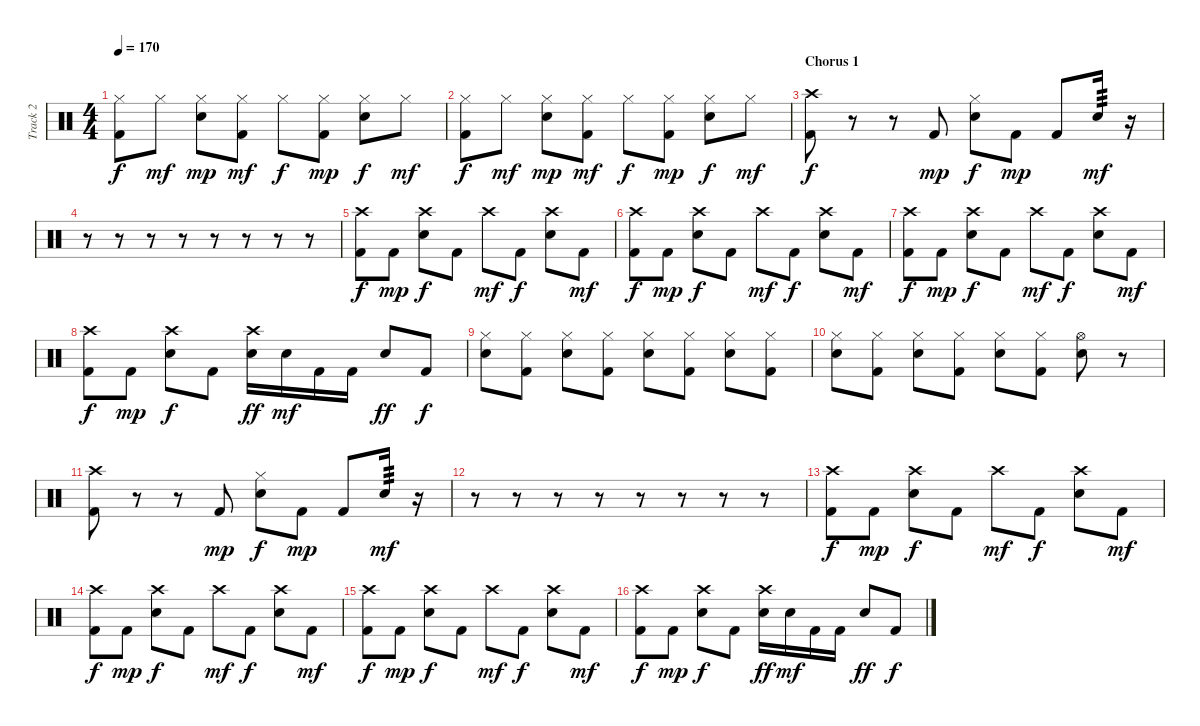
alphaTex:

\track ("Track 2" "Track 2") {instrument percussion}
\staff {score}
\articulation defaults
\ts (4 4)
\tempo 170
\clef neutral
\ks c
("Hi-Hat (closed)" "Kick (hit) 2").8{dy f} "Hi-Hat (closed)".8{dy mf} ("Hi-Hat (closed)" "Electric Snare (hit)").8{dy mp} ("Hi-Hat (closed)" "Kick (hit) 2").8{dy mf} "Hi-Hat (closed)".8{dy f} ("Hi-Hat (closed)" "Kick (hit) 2").8{dy mp} ("Hi-Hat (closed)" "Electric Snare (hit)").8{dy f} "Hi-Hat (closed)".8{dy mf} |
("Hi-Hat (closed)" "Kick (hit) 2").8{dy f} "Hi-Hat (closed)".8{dy mf} ("Hi-Hat (closed)" "Electric Snare (hit)").8{dy mp} ("Hi-Hat (closed)" "Kick (hit) 2").8{dy mf} "Hi-Hat (closed)".8{dy f} ("Hi-Hat (closed)" "Kick (hit) 2").8{dy mp} ("Hi-Hat (closed)" "Electric Snare (hit)").8{dy f} "Hi-Hat (closed)".8{dy mf} |
\section ("" "Chorus 1")
("Crash high (hit)" "Kick (hit) 2").8{dy f} r.8 r.8 "Kick (hit) 2".8{dy mp} ("Hi-Hat (closed)" "Electric Snare (hit)").8{dy f} "Kick (hit) 2".8{dy mp} "Kick (hit) 2".8 "Electric Snare (hit)".16{tp 3 dy mf} r.16 |
r.8 r.8 r.8 r.8 r.8 r.8 r.8 r.8 |
("Crash high (hit)" "Kick (hit) 2").8{dy f} "Kick (hit) 2".8{dy mp} ("Crash high (hit)" "Electric Snare (hit)").8{dy f} "Kick (hit) 2".8 "Crash high (hit)".8{dy mf} "Kick (hit) 2".8{dy f} ("Crash high (hit)" "Electric Snare (hit)").8 "Kick (hit) 2".8{dy mf} |
("Crash high (hit)" "Kick (hit) 2").8{dy f} "Kick (hit) 2".8{dy mp} ("Crash high (hit)" "Electric Snare (hit)").8{dy f} "Kick (hit) 2".8 "Crash high (hit)".8{dy mf} "Kick (hit) 2".8{dy f} ("Crash high (hit)" "Electric Snare (hit)").8 "Kick (hit) 2".8{dy mf} |
("Crash high (hit)" "Kick (hit) 2").8{dy f} "Kick (hit) 2".8{dy mp} ("Crash high (hit)" "Electric Snare (hit)").8{dy f} "Kick (hit) 2".8 "Crash high (hit)".8{dy mf} "Kick (hit) 2".8{dy f} ("Crash high (hit)" "Electric Snare (hit)").8 "Kick (hit) 2".8{dy mf} |
("Crash high (hit)" "Kick (hit) 2").8{dy f} "Kick (hit) 2".8{dy mp} ("Crash high (hit)" "Electric Snare (hit)").8{dy f} "Kick (hit) 2".8 ("Crash high (hit)" "Electric Snare (hit)").16{dy ff} "Electric Snare (hit)".16{dy mf} "Kick (hit) 2".16 "Kick (hit) 2".16 "Electric Snare (hit)".8{dy ff} "Kick (hit) 2".8{dy f} |
("Hi-Hat (closed)" "Electric Snare (hit)").8 ("Hi-Hat (closed)" "Kick (hit) 2").8 ("Hi-Hat (closed)" "Electric Snare (hit)").8 ("Hi-Hat (closed)" "Kick (hit) 2").8 ("Hi-Hat (closed)" "Electric Snare (hit)").8 ("Hi-Hat (closed)" "Kick (hit) 2").8 ("Hi-Hat (closed)" "Electric Snare (hit)").8 ("Hi-Hat (closed)" "Kick (hit) 2").8 |
("Hi-Hat (closed)" "Electric Snare (hit)").8 ("Hi-Hat (closed)" "Kick (hit) 2").8 ("Hi-Hat (closed)" "Electric Snare (hit)").8 ("Hi-Hat (closed)" "Kick (hit) 2").8 ("Hi-Hat (closed)" "Electric Snare (hit)").8 ("Hi-Hat (closed)" "Kick (hit) 2").8 ("Hi-Hat (open)" "Electric Snare (hit)").8 r.8 |
("Crash high (hit)" "Kick (hit) 2").8 r.8 r.8 "Kick (hit) 2".8{dy mp} ("Hi-Hat (closed)" "Electric Snare (hit)").8{dy f} "Kick (hit) 2".8{dy mp} "Kick (hit) 2".8 "Electric Snare (hit)".16{tp 3 dy mf} r.16 |
r.8 r.8 r.8 r.8 r.8 r.8 r.8 r.8 |
("Crash high (hit)" "Kick (hit) 2").8{dy f} "Kick (hit) 2".8{dy mp} ("Crash high (hit)" "Electric Snare (hit)").8{dy f} "Kick (hit) 2".8 "Crash high (hit)".8{dy mf} "Kick (hit) 2".8{dy f} ("Crash high (hit)" "Electric Snare (hit)").8 "Kick (hit) 2".8{dy mf} |
("Crash high (hit)" "Kick (hit) 2").8{dy f} "Kick (hit) 2".8{dy mp} ("Crash high (hit)" "Electric Snare (hit)").8{dy f} "Kick (hit) 2".8 "Crash high (hit)".8{dy mf} "Kick (hit) 2".8{dy f} ("Crash high (hit)" "Electric Snare (hit)").8 "Kick (hit) 2".8{dy mf} |
("Crash high (hit)" "Kick (hit) 2").8{dy f} "Kick (hit) 2".8{dy mp} ("Crash high (hit)" "Electric Snare (hit)").8{dy f} "Kick (hit) 2".8 "Crash high (hit)".8{dy mf} "Kick (hit) 2".8{dy f} ("Crash high (hit)" "Electric Snare (hit)").8 "Kick (hit) 2".8{dy mf} |
("Crash high (hit)" "Kick (hit) 2").8{dy f} "Kick (hit) 2".8{dy mp} ("Crash high (hit)" "Electric Snare (hit)").8{dy f} "Kick (hit) 2".8 ("Crash high (hit)" "Electric Snare (hit)").16{dy ff} "Electric Snare (hit)".16{dy mf} "Kick (hit) 2".16 "Kick (hit) 2".16 "Electric Snare (hit)".8{dy ff} "Kick (hit) 2".8{dy f}
